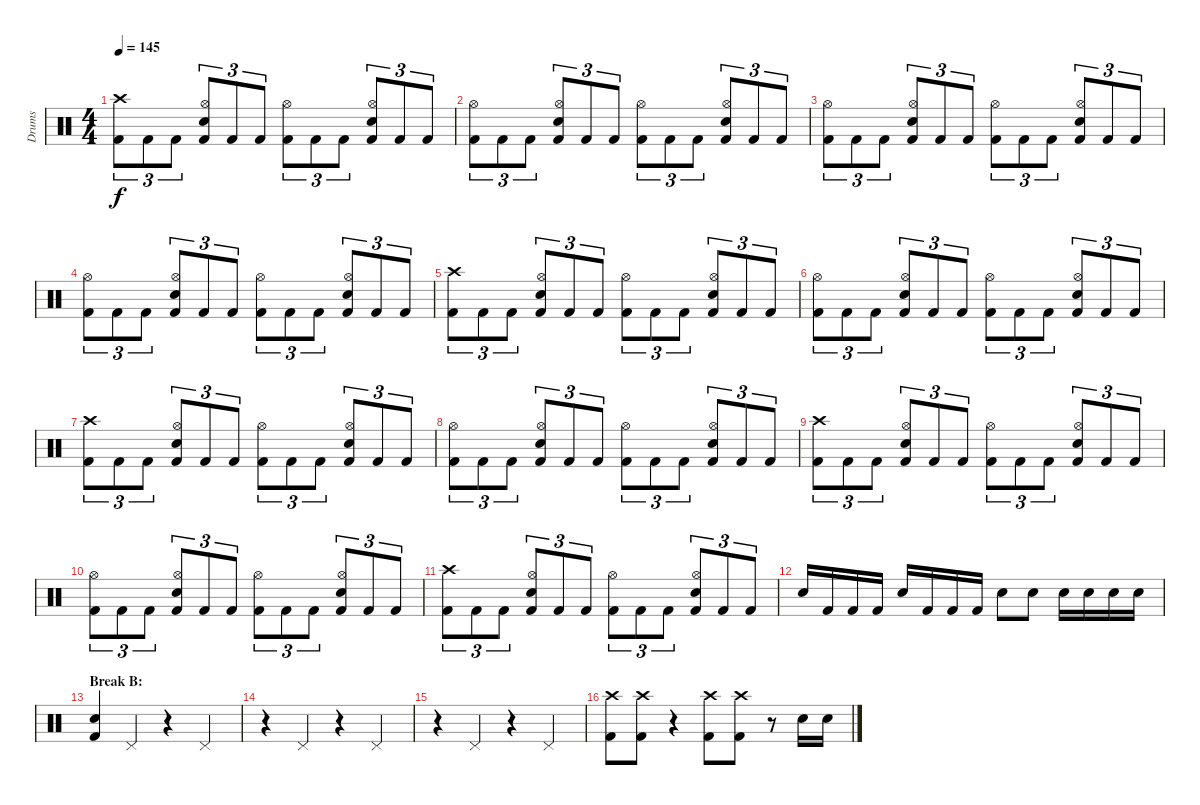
\track ("Drums" "Drums") {instrument percussion}
\staff {score}
\articulation defaults
\ts (4 4)
\tempo 145
\clef neutral
\ks c
("Crash high (hit)" "Kick (hit) 2").8{tu (3 2) dy f} "Kick (hit) 2".8{tu (3 2)} "Kick (hit) 2".8{tu (3 2)} ("Hi-Hat (open)" "Snare (hit) 2" "Kick (hit) 2").8{tu (3 2)} "Kick (hit) 2".8{tu (3 2)} "Kick (hit) 2".8{tu (3 2)} ("Hi-Hat (open)" "Kick (hit) 2").8{tu (3 2)} "Kick (hit) 2".8{tu (3 2)} "Kick (hit) 2".8{tu (3 2)} ("Hi-Hat (open)" "Snare (hit) 2" "Kick (hit) 2").8{tu (3 2)} "Kick (hit) 2".8{tu (3 2)} "Kick (hit) 2".8{tu (3 2)} |
("Hi-Hat (open)" "Kick (hit) 2").8{tu (3 2)} "Kick (hit) 2".8{tu (3 2)} "Kick (hit) 2".8{tu (3 2)} ("Hi-Hat (open)" "Snare (hit) 2" "Kick (hit) 2").8{tu (3 2)} "Kick (hit) 2".8{tu (3 2)} "Kick (hit) 2".8{tu (3 2)} ("Hi-Hat (open)" "Kick (hit) 2").8{tu (3 2)} "Kick (hit) 2".8{tu (3 2)} "Kick (hit) 2".8{tu (3 2)} ("Hi-Hat (open)" "Snare (hit) 2" "Kick (hit) 2").8{tu (3 2)} "Kick (hit) 2".8{tu (3 2)} "Kick (hit) 2".8{tu (3 2)} |
("Hi-Hat (open)" "Kick (hit) 2").8{tu (3 2)} "Kick (hit) 2".8{tu (3 2)} "Kick (hit) 2".8{tu (3 2)} ("Hi-Hat (open)" "Snare (hit) 2" "Kick (hit) 2").8{tu (3 2)} "Kick (hit) 2".8{tu (3 2)} "Kick (hit) 2".8{tu (3 2)} ("Hi-Hat (open)" "Kick (hit) 2").8{tu (3 2)} "Kick (hit) 2".8{tu (3 2)} "Kick (hit) 2".8{tu (3 2)} ("Hi-Hat (open)" "Snare (hit) 2" "Kick (hit) 2").8{tu (3 2)} "Kick (hit) 2".8{tu (3 2)} "Kick (hit) 2".8{tu (3 2)} |
("Hi-Hat (open)" "Kick (hit) 2").8{tu (3 2)} "Kick (hit) 2".8{tu (3 2)} "Kick (hit) 2".8{tu (3 2)} ("Hi-Hat (open)" "Snare (hit) 2" "Kick (hit) 2").8{tu (3 2)} "Kick (hit) 2".8{tu (3 2)} "Kick (hit) 2".8{tu (3 2)} ("Hi-Hat (open)" "Kick (hit) 2").8{tu (3 2)} "Kick (hit) 2".8{tu (3 2)} "Kick (hit) 2".8{tu (3 2)} ("Hi-Hat (open)" "Snare (hit) 2" "Kick (hit) 2").8{tu (3 2)} "Kick (hit) 2".8{tu (3 2)} "Kick (hit) 2".8{tu (3 2)} |
("Crash high (hit)" "Kick (hit) 2").8{tu (3 2)} "Kick (hit) 2".8{tu (3 2)} "Kick (hit) 2".8{tu (3 2)} ("Hi-Hat (open)" "Snare (hit) 2" "Kick (hit) 2").8{tu (3 2)} "Kick (hit) 2".8{tu (3 2)} "Kick (hit) 2".8{tu (3 2)} ("Hi-Hat (open)" "Kick (hit) 2").8{tu (3 2)} "Kick (hit) 2".8{tu (3 2)} "Kick (hit) 2".8{tu (3 2)} ("Hi-Hat (open)" "Snare (hit) 2" "Kick (hit) 2").8{tu (3 2)} "Kick (hit) 2".8{tu (3 2)} "Kick (hit) 2".8{tu (3 2)} |
("Hi-Hat (open)" "Kick (hit) 2").8{tu (3 2)} "Kick (hit) 2".8{tu (3 2)} "Kick (hit) 2".8{tu (3 2)} ("Hi-Hat (open)" "Snare (hit) 2" "Kick (hit) 2").8{tu (3 2)} "Kick (hit) 2".8{tu (3 2)} "Kick (hit) 2".8{tu (3 2)} ("Hi-Hat (open)" "Kick (hit) 2").8{tu (3 2)} "Kick (hit) 2".8{tu (3 2)} "Kick (hit) 2".8{tu (3 2)} ("Hi-Hat (open)" "Snare (hit) 2" "Kick (hit) 2").8{tu (3 2)} "Kick (hit) 2".8{tu (3 2)} "Kick (hit) 2".8{tu (3 2)} |
("Crash high (hit)" "Kick (hit) 2").8{tu (3 2)} "Kick (hit) 2".8{tu (3 2)} "Kick (hit) 2".8{tu (3 2)} ("Hi-Hat (open)" "Snare (hit) 2" "Kick (hit) 2").8{tu (3 2)} "Kick (hit) 2".8{tu (3 2)} "Kick (hit) 2".8{tu (3 2)} ("Hi-Hat (open)" "Kick (hit) 2").8{tu (3 2)} "Kick (hit) 2".8{tu (3 2)} "Kick (hit) 2".8{tu (3 2)} ("Hi-Hat (open)" "Snare (hit) 2" "Kick (hit) 2").8{tu (3 2)} "Kick (hit) 2".8{tu (3 2)} "Kick (hit) 2".8{tu (3 2)} |
("Hi-Hat (open)" "Kick (hit) 2").8{tu (3 2)} "Kick (hit) 2".8{tu (3 2)} "Kick (hit) 2".8{tu (3 2)} ("Hi-Hat (open)" "Snare (hit) 2" "Kick (hit) 2").8{tu (3 2)} "Kick (hit) 2".8{tu (3 2)} "Kick (hit) 2".8{tu (3 2)} ("Hi-Hat (open)" "Kick (hit) 2").8{tu (3 2)} "Kick (hit) 2".8{tu (3 2)} "Kick (hit) 2".8{tu (3 2)} ("Hi-Hat (open)" "Snare (hit) 2" "Kick (hit) 2").8{tu (3 2)} "Kick (hit) 2".8{tu (3 2)} "Kick (hit) 2".8{tu (3 2)} |
("Crash high (hit)" "Kick (hit) 2").8{tu (3 2)} "Kick (hit) 2".8{tu (3 2)} "Kick (hit) 2".8{tu (3 2)} ("Hi-Hat (open)" "Snare (hit) 2" "Kick (hit) 2").8{tu (3 2)} "Kick (hit) 2".8{tu (3 2)} "Kick (hit) 2".8{tu (3 2)} ("Hi-Hat (open)" "Kick (hit) 2").8{tu (3 2)} "Kick (hit) 2".8{tu (3 2)} "Kick (hit) 2".8{tu (3 2)} ("Hi-Hat (open)" "Snare (hit) 2" "Kick (hit) 2").8{tu (3 2)} "Kick (hit) 2".8{tu (3 2)} "Kick (hit) 2".8{tu (3 2)} |
("Hi-Hat (open)" "Kick (hit) 2").8{tu (3 2)} "Kick (hit) 2".8{tu (3 2)} "Kick (hit) 2".8{tu (3 2)} ("Hi-Hat (open)" "Snare (hit) 2" "Kick (hit) 2").8{tu (3 2)} "Kick (hit) 2".8{tu (3 2)} "Kick (hit) 2".8{tu (3 2)} ("Hi-Hat (open)" "Kick (hit) 2").8{tu (3 2)} "Kick (hit) 2".8{tu (3 2)} "Kick (hit) 2".8{tu (3 2)} ("Hi-Hat (open)" "Snare (hit) 2" "Kick (hit) 2").8{tu (3 2)} "Kick (hit) 2".8{tu (3 2)} "Kick (hit) 2".8{tu (3 2)} |
("Crash high (hit)" "Kick (hit) 2").8{tu (3 2)} "Kick (hit) 2".8{tu (3 2)} "Kick (hit) 2".8{tu (3 2)} ("Hi-Hat (open)" "Snare (hit) 2" "Kick (hit) 2").8{tu (3 2)} "Kick (hit) 2".8{tu (3 2)} "Kick (hit) 2".8{tu (3 2)} ("Hi-Hat (open)" "Kick (hit) 2").8{tu (3 2)} "Kick (hit) 2".8{tu (3 2)} "Kick (hit) 2".8{tu (3 2)} ("Hi-Hat (open)" "Snare (hit) 2" "Kick (hit) 2").8{tu (3 2)} "Kick (hit) 2".8{tu (3 2)} "Kick (hit) 2".8{tu (3 2)} |
"Snare (hit) 2".16 "Kick (hit) 2".16 "Kick (hit) 2".16 "Kick (hit) 2".16 "Snare (hit) 2".16 "Kick (hit) 2".16 "Kick (hit) 2".16 "Kick (hit) 2".16 "Snare (hit) 2".8 "Snare (hit) 2".8 "Snare (hit) 2".16 "Snare (hit) 2".16 "Snare (hit) 2".16 "Snare (hit) 2".16 |
\section ("" "Break B:")
("Snare (hit) 2" "Kick (hit) 2").4 "Pedal Hi-Hat (hit)".4 r.4 "Pedal Hi-Hat (hit)".4 |
r.4 "Pedal Hi-Hat (hit)".4 r.4 "Pedal Hi-Hat (hit)".4 |
r.4 "Pedal Hi-Hat (hit)".4 r.4 "Pedal Hi-Hat (hit)".4 |
("Crash high (hit)" "Kick (hit) 2").8 ("Crash high (hit)" "Kick (hit) 2").8 r.4 ("Crash high (hit)" "Kick (hit) 2").8 ("Crash high (hit)" "Kick (hit) 2").8 r.8 "Snare (hit) 2".16 "Snare (hit) 2".16
